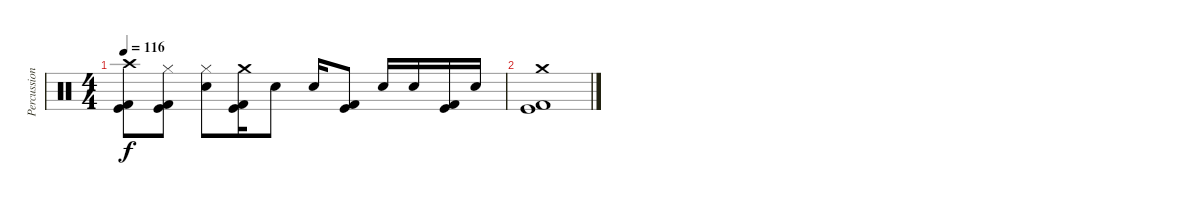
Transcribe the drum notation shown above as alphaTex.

\track ("Percussion" "Percussion") {instrument percussion}
\staff {score}
\articulation defaults
\ts (4 4)
\tempo 116
\clef neutral
\ks c
("Crash high (hit)" "Kick (hit)" "Kick (hit) 2").8{dy f} ("Hi-Hat (closed)" "Kick (hit)" "Kick (hit) 2").8 ("Hi-Hat (closed)" "Electric Snare (hit)").8 ("Crash medium (hit)" "Kick (hit)" "Kick (hit) 2").16 "Electric Snare (hit)".8 "Electric Snare (hit)".16 ("Kick (hit)" "Kick (hit) 2").8 "Electric Snare (hit)".16 "Electric Snare (hit)".16 ("Kick (hit)" "Kick (hit) 2").16 "Electric Snare (hit)".16 |
("Crash medium (hit)" "Kick (hit)" "Kick (hit) 2").1
